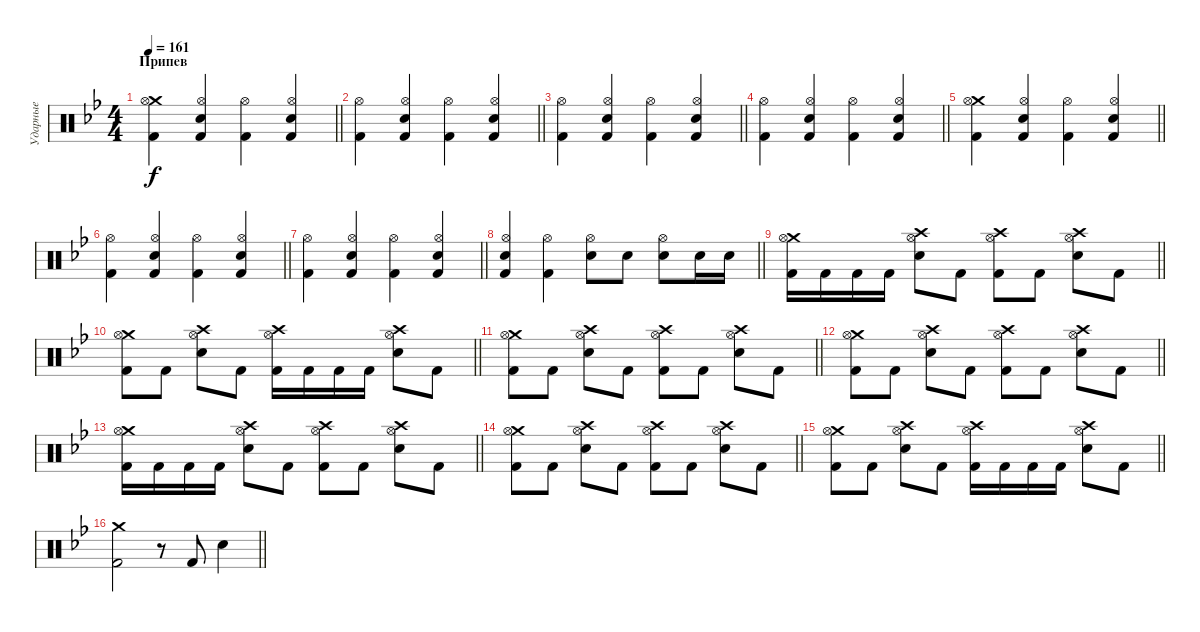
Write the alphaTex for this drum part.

\track ("Ударные" "Ударные") {instrument percussion}
\staff {score}
\articulation defaults
\ts (4 4)
\section ("" "Припев")
\tempo 161
\clef neutral
\barLineRight lightlight
\ks gminor
("Crash medium (hit)" "Kick (hit) 2" "Hi-Hat (open)").4{dy f} ("Electric Snare (hit)" "Kick (hit) 2" "Hi-Hat (open)").4 ("Kick (hit) 2" "Hi-Hat (open)").4 ("Electric Snare (hit)" "Kick (hit) 2" "Hi-Hat (open)").4 |
\barLineRight lightlight
("Kick (hit) 2" "Hi-Hat (open)").4 ("Electric Snare (hit)" "Kick (hit) 2" "Hi-Hat (open)").4 ("Kick (hit) 2" "Hi-Hat (open)").4 ("Electric Snare (hit)" "Kick (hit) 2" "Hi-Hat (open)").4 |
\barLineRight lightlight
("Kick (hit) 2" "Hi-Hat (open)").4 ("Electric Snare (hit)" "Kick (hit) 2" "Hi-Hat (open)").4 ("Kick (hit) 2" "Hi-Hat (open)").4 ("Electric Snare (hit)" "Kick (hit) 2" "Hi-Hat (open)").4 |
\barLineRight lightlight
("Kick (hit) 2" "Hi-Hat (open)").4 ("Electric Snare (hit)" "Kick (hit) 2" "Hi-Hat (open)").4 ("Kick (hit) 2" "Hi-Hat (open)").4 ("Electric Snare (hit)" "Kick (hit) 2" "Hi-Hat (open)").4 |
\barLineRight lightlight
("Crash medium (hit)" "Kick (hit) 2" "Hi-Hat (open)").4 ("Electric Snare (hit)" "Kick (hit) 2" "Hi-Hat (open)").4 ("Kick (hit) 2" "Hi-Hat (open)").4 ("Electric Snare (hit)" "Kick (hit) 2" "Hi-Hat (open)").4 |
\barLineRight lightlight
("Kick (hit) 2" "Hi-Hat (open)").4 ("Electric Snare (hit)" "Kick (hit) 2" "Hi-Hat (open)").4 ("Kick (hit) 2" "Hi-Hat (open)").4 ("Electric Snare (hit)" "Kick (hit) 2" "Hi-Hat (open)").4 |
\barLineRight lightlight
("Kick (hit) 2" "Hi-Hat (open)").4 ("Electric Snare (hit)" "Kick (hit) 2" "Hi-Hat (open)").4 ("Kick (hit) 2" "Hi-Hat (open)").4 ("Electric Snare (hit)" "Kick (hit) 2" "Hi-Hat (open)").4 |
\barLineRight lightlight
("Electric Snare (hit)" "Kick (hit) 2" "Hi-Hat (open)").4 ("Kick (hit) 2" "Hi-Hat (open)").4 ("Electric Snare (hit)" "Hi-Hat (open)").8 "Electric Snare (hit)".8 ("Electric Snare (hit)" "Hi-Hat (open)").8 "Electric Snare (hit)".16 "Electric Snare (hit)".16 |
\barLineRight lightlight
("Crash medium (hit)" "Kick (hit) 2" "Hi-Hat (open)").16 "Kick (hit) 2".16 "Kick (hit) 2".16 "Kick (hit) 2".16 ("Crash high (hit)" "Electric Snare (hit)" "Hi-Hat (open)").8 "Kick (hit) 2".8 ("Crash high (hit)" "Kick (hit) 2" "Hi-Hat (open)").8 "Kick (hit) 2".8 ("Crash high (hit)" "Electric Snare (hit)" "Hi-Hat (open)").8 "Kick (hit) 2".8 |
\barLineRight lightlight
("Crash medium (hit)" "Kick (hit) 2" "Hi-Hat (open)").8 "Kick (hit) 2".8 ("Crash high (hit)" "Electric Snare (hit)" "Hi-Hat (open)").8 "Kick (hit) 2".8 ("Crash high (hit)" "Kick (hit) 2" "Hi-Hat (open)").16 "Kick (hit) 2".16 "Kick (hit) 2".16 "Kick (hit) 2".16 ("Crash high (hit)" "Electric Snare (hit)" "Hi-Hat (open)").8 "Kick (hit) 2".8 |
\barLineRight lightlight
("Crash medium (hit)" "Kick (hit) 2" "Hi-Hat (open)").8 "Kick (hit) 2".8 ("Crash high (hit)" "Electric Snare (hit)" "Hi-Hat (open)").8 "Kick (hit) 2".8 ("Crash high (hit)" "Kick (hit) 2" "Hi-Hat (open)").8 "Kick (hit) 2".8 ("Crash high (hit)" "Electric Snare (hit)" "Hi-Hat (open)").8 "Kick (hit) 2".8 |
\barLineRight lightlight
("Crash medium (hit)" "Kick (hit) 2" "Hi-Hat (open)").8 "Kick (hit) 2".8 ("Crash high (hit)" "Electric Snare (hit)" "Hi-Hat (open)").8 "Kick (hit) 2".8 ("Crash high (hit)" "Kick (hit) 2" "Hi-Hat (open)").8 "Kick (hit) 2".8 ("Crash high (hit)" "Electric Snare (hit)" "Hi-Hat (open)").8 "Kick (hit) 2".8 |
\barLineRight lightlight
("Crash medium (hit)" "Kick (hit) 2" "Hi-Hat (open)").16 "Kick (hit) 2".16 "Kick (hit) 2".16 "Kick (hit) 2".16 ("Crash high (hit)" "Electric Snare (hit)" "Hi-Hat (open)").8 "Kick (hit) 2".8 ("Crash high (hit)" "Kick (hit) 2" "Hi-Hat (open)").8 "Kick (hit) 2".8 ("Crash high (hit)" "Electric Snare (hit)" "Hi-Hat (open)").8 "Kick (hit) 2".8 |
\barLineRight lightlight
("Crash medium (hit)" "Kick (hit) 2" "Hi-Hat (open)").8 "Kick (hit) 2".8 ("Crash high (hit)" "Electric Snare (hit)" "Hi-Hat (open)").8 "Kick (hit) 2".8 ("Crash high (hit)" "Kick (hit) 2" "Hi-Hat (open)").8 "Kick (hit) 2".8 ("Crash high (hit)" "Electric Snare (hit)" "Hi-Hat (open)").8 "Kick (hit) 2".8 |
\barLineRight lightlight
("Crash medium (hit)" "Kick (hit) 2" "Hi-Hat (open)").8 "Kick (hit) 2".8 ("Crash high (hit)" "Electric Snare (hit)" "Hi-Hat (open)").8 "Kick (hit) 2".8 ("Crash high (hit)" "Kick (hit) 2" "Hi-Hat (open)").16 "Kick (hit) 2".16 "Kick (hit) 2".16 "Kick (hit) 2".16 ("Crash high (hit)" "Electric Snare (hit)" "Hi-Hat (open)").8 "Kick (hit) 2".8 |
\barLineRight lightlight
("Crash medium (hit)" "Kick (hit) 2").2 r.8 "Kick (hit) 2".8 "Electric Snare (hit)".4
